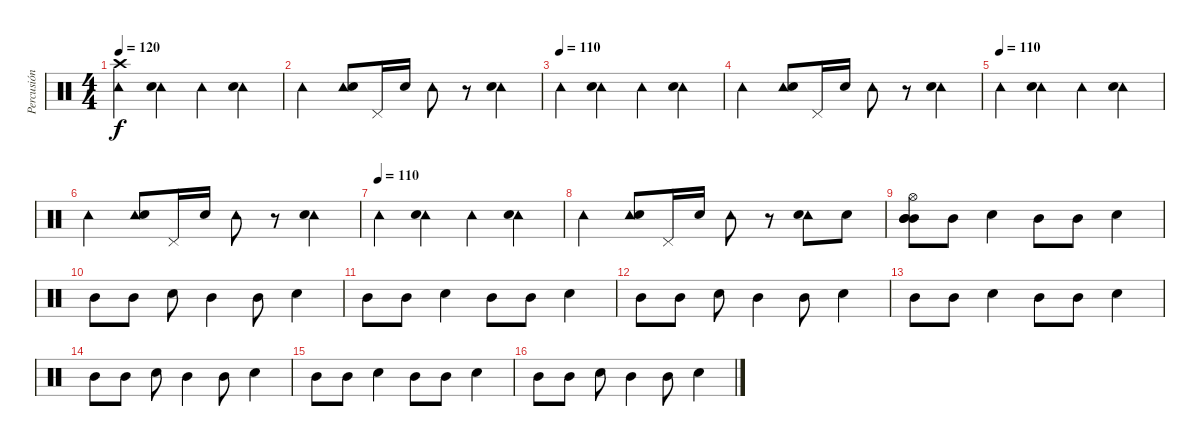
\track ("Percusión" "Percusión") {instrument percussion}
\staff {score}
\articulation defaults
\ts (4 4)
\tempo 120
\tempo 110
\tempo 120
\clef neutral
\ks c
("Tambourine (hit)" "Crash high (hit)").4{dy f} ("Tambourine (hit)" "Electric Snare (hit)").4 "Tambourine (hit)".4 ("Tambourine (hit)" "Electric Snare (hit)").4 |
"Tambourine (hit)".4 ("Tambourine (hit)" "Electric Snare (hit)").8 "Pedal Hi-Hat (hit)".16 "Electric Snare (hit)".16 "Tambourine (hit)".8 r.8 ("Tambourine (hit)" "Electric Snare (hit)").4 |
\tempo (110)
"Tambourine (hit)".4 ("Tambourine (hit)" "Electric Snare (hit)").4 "Tambourine (hit)".4 ("Tambourine (hit)" "Electric Snare (hit)").4 |
"Tambourine (hit)".4 ("Tambourine (hit)" "Electric Snare (hit)").8 "Pedal Hi-Hat (hit)".16 "Electric Snare (hit)".16 "Tambourine (hit)".8 r.8 ("Tambourine (hit)" "Electric Snare (hit)").4 |
\tempo (110)
"Tambourine (hit)".4 ("Tambourine (hit)" "Electric Snare (hit)").4 "Tambourine (hit)".4 ("Tambourine (hit)" "Electric Snare (hit)").4 |
"Tambourine (hit)".4 ("Tambourine (hit)" "Electric Snare (hit)").8 "Pedal Hi-Hat (hit)".16 "Electric Snare (hit)".16 "Tambourine (hit)".8 r.8 ("Tambourine (hit)" "Electric Snare (hit)").4 |
\tempo (110)
"Tambourine (hit)".4 ("Tambourine (hit)" "Electric Snare (hit)").4 "Tambourine (hit)".4 ("Tambourine (hit)" "Electric Snare (hit)").4 |
"Tambourine (hit)".4 ("Tambourine (hit)" "Electric Snare (hit)").8 "Pedal Hi-Hat (hit)".16 "Electric Snare (hit)".16 "Tambourine (hit)".8 r.8 ("Tambourine (hit)" "Electric Snare (hit)").8 "Electric Snare (hit)".8 |
("Mid Tom (hit)" "Hi-Hat (open)" "Mid Tom (hit)" "Mid Tom (hit)").8 "Mid Tom (hit)".8 "Electric Snare (hit)".4 "Mid Tom (hit)".8 "Mid Tom (hit)".8 "Electric Snare (hit)".4 |
"Mid Tom (hit)".8 "Mid Tom (hit)".8 "Electric Snare (hit)".8 "Mid Tom (hit)".4 "Mid Tom (hit)".8 "Electric Snare (hit)".4 |
"Mid Tom (hit)".8 "Mid Tom (hit)".8 "Electric Snare (hit)".4 "Mid Tom (hit)".8 "Mid Tom (hit)".8 "Electric Snare (hit)".4 |
"Mid Tom (hit)".8 "Mid Tom (hit)".8 "Electric Snare (hit)".8 "Mid Tom (hit)".4 "Mid Tom (hit)".8 "Electric Snare (hit)".4 |
"Mid Tom (hit)".8 "Mid Tom (hit)".8 "Electric Snare (hit)".4 "Mid Tom (hit)".8 "Mid Tom (hit)".8 "Electric Snare (hit)".4 |
"Mid Tom (hit)".8 "Mid Tom (hit)".8 "Electric Snare (hit)".8 "Mid Tom (hit)".4 "Mid Tom (hit)".8 "Electric Snare (hit)".4 |
"Mid Tom (hit)".8 "Mid Tom (hit)".8 "Electric Snare (hit)".4 "Mid Tom (hit)".8 "Mid Tom (hit)".8 "Electric Snare (hit)".4 |
"Mid Tom (hit)".8 "Mid Tom (hit)".8 "Electric Snare (hit)".8 "Mid Tom (hit)".4 "Mid Tom (hit)".8 "Electric Snare (hit)".4
